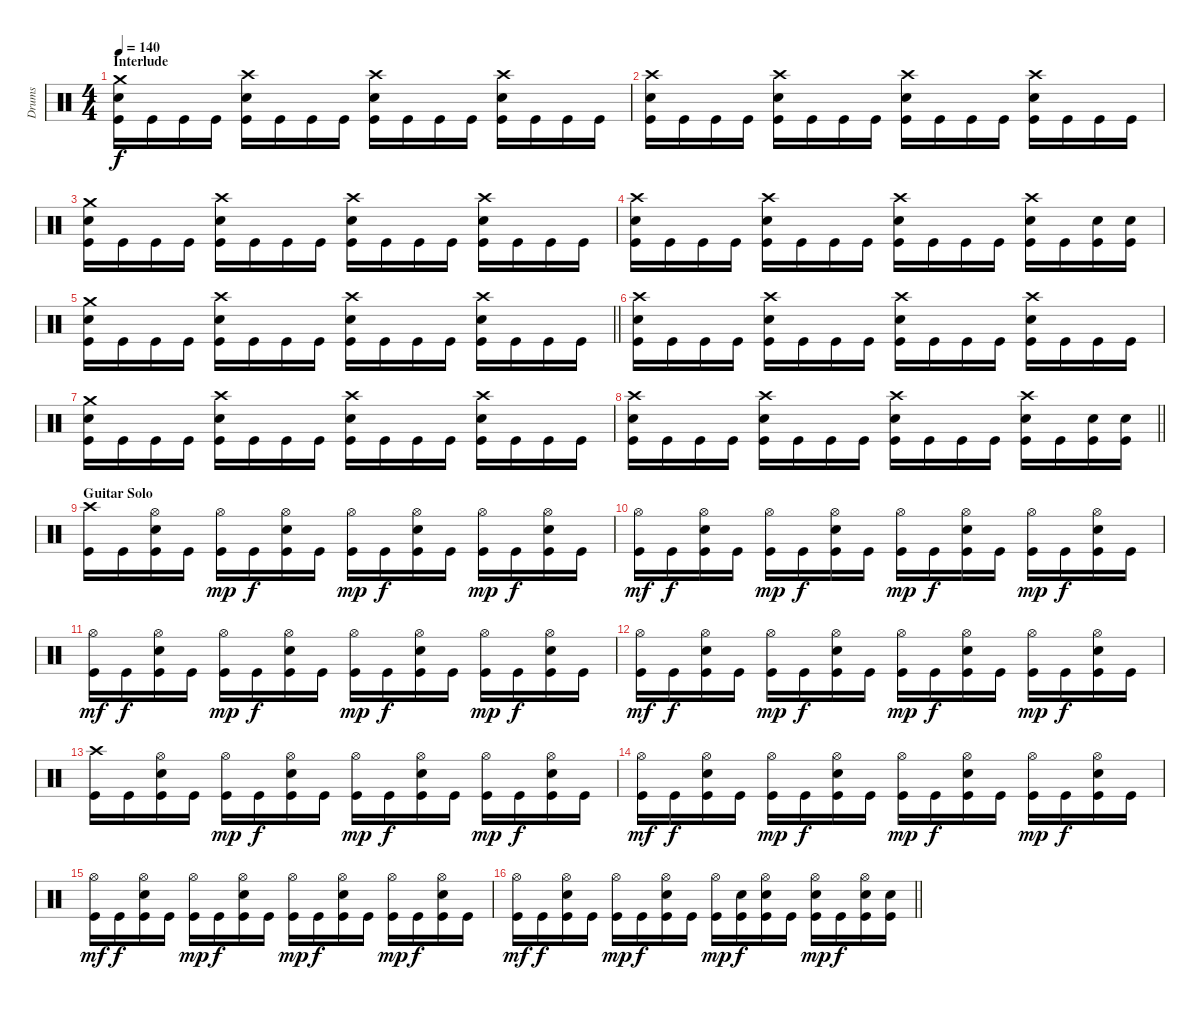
\track ("Drums" "Drums") {instrument percussion}
\staff {score}
\articulation defaults
\ts (4 4)
\section ("" "Interlude")
\tempo 140
\clef neutral
\ks c
("Crash medium (hit)" "Electric Snare (hit)" "Kick (hit)").16{dy f} "Kick (hit)".16 "Kick (hit)".16 "Kick (hit)".16 ("Crash high (hit)" "Electric Snare (hit)" "Kick (hit)").16 "Kick (hit)".16 "Kick (hit)".16 "Kick (hit)".16 ("Crash high (hit)" "Electric Snare (hit)" "Kick (hit)").16 "Kick (hit)".16 "Kick (hit)".16 "Kick (hit)".16 ("Crash high (hit)" "Electric Snare (hit)" "Kick (hit)").16 "Kick (hit)".16 "Kick (hit)".16 "Kick (hit)".16 |
("Crash high (hit)" "Electric Snare (hit)" "Kick (hit)").16 "Kick (hit)".16 "Kick (hit)".16 "Kick (hit)".16 ("Crash high (hit)" "Electric Snare (hit)" "Kick (hit)").16 "Kick (hit)".16 "Kick (hit)".16 "Kick (hit)".16 ("Crash high (hit)" "Electric Snare (hit)" "Kick (hit)").16 "Kick (hit)".16 "Kick (hit)".16 "Kick (hit)".16 ("Crash high (hit)" "Electric Snare (hit)" "Kick (hit)").16 "Kick (hit)".16 "Kick (hit)".16 "Kick (hit)".16 |
("Crash medium (hit)" "Electric Snare (hit)" "Kick (hit)").16 "Kick (hit)".16 "Kick (hit)".16 "Kick (hit)".16 ("Crash high (hit)" "Electric Snare (hit)" "Kick (hit)").16 "Kick (hit)".16 "Kick (hit)".16 "Kick (hit)".16 ("Crash high (hit)" "Electric Snare (hit)" "Kick (hit)").16 "Kick (hit)".16 "Kick (hit)".16 "Kick (hit)".16 ("Crash high (hit)" "Electric Snare (hit)" "Kick (hit)").16 "Kick (hit)".16 "Kick (hit)".16 "Kick (hit)".16 |
("Crash high (hit)" "Electric Snare (hit)" "Kick (hit)").16 "Kick (hit)".16 "Kick (hit)".16 "Kick (hit)".16 ("Crash high (hit)" "Electric Snare (hit)" "Kick (hit)").16 "Kick (hit)".16 "Kick (hit)".16 "Kick (hit)".16 ("Crash high (hit)" "Electric Snare (hit)" "Kick (hit)").16 "Kick (hit)".16 "Kick (hit)".16 "Kick (hit)".16 ("Crash high (hit)" "Electric Snare (hit)" "Kick (hit)").16 "Kick (hit)".16 ("Electric Snare (hit)" "Kick (hit)").16 ("Electric Snare (hit)" "Kick (hit)").16 |
\barLineRight lightlight
("Crash medium (hit)" "Electric Snare (hit)" "Kick (hit)").16 "Kick (hit)".16 "Kick (hit)".16 "Kick (hit)".16 ("Crash high (hit)" "Electric Snare (hit)" "Kick (hit)").16 "Kick (hit)".16 "Kick (hit)".16 "Kick (hit)".16 ("Crash high (hit)" "Electric Snare (hit)" "Kick (hit)").16 "Kick (hit)".16 "Kick (hit)".16 "Kick (hit)".16 ("Crash high (hit)" "Electric Snare (hit)" "Kick (hit)").16 "Kick (hit)".16 "Kick (hit)".16 "Kick (hit)".16 |
("Crash high (hit)" "Electric Snare (hit)" "Kick (hit)").16 "Kick (hit)".16 "Kick (hit)".16 "Kick (hit)".16 ("Crash high (hit)" "Electric Snare (hit)" "Kick (hit)").16 "Kick (hit)".16 "Kick (hit)".16 "Kick (hit)".16 ("Crash high (hit)" "Electric Snare (hit)" "Kick (hit)").16 "Kick (hit)".16 "Kick (hit)".16 "Kick (hit)".16 ("Crash high (hit)" "Electric Snare (hit)" "Kick (hit)").16 "Kick (hit)".16 "Kick (hit)".16 "Kick (hit)".16 |
("Crash medium (hit)" "Electric Snare (hit)" "Kick (hit)").16 "Kick (hit)".16 "Kick (hit)".16 "Kick (hit)".16 ("Crash high (hit)" "Electric Snare (hit)" "Kick (hit)").16 "Kick (hit)".16 "Kick (hit)".16 "Kick (hit)".16 ("Crash high (hit)" "Electric Snare (hit)" "Kick (hit)").16 "Kick (hit)".16 "Kick (hit)".16 "Kick (hit)".16 ("Crash high (hit)" "Electric Snare (hit)" "Kick (hit)").16 "Kick (hit)".16 "Kick (hit)".16 "Kick (hit)".16 |
\barLineRight lightlight
("Crash high (hit)" "Electric Snare (hit)" "Kick (hit)").16 "Kick (hit)".16 "Kick (hit)".16 "Kick (hit)".16 ("Crash high (hit)" "Electric Snare (hit)" "Kick (hit)").16 "Kick (hit)".16 "Kick (hit)".16 "Kick (hit)".16 ("Crash high (hit)" "Electric Snare (hit)" "Kick (hit)").16 "Kick (hit)".16 "Kick (hit)".16 "Kick (hit)".16 ("Crash high (hit)" "Electric Snare (hit)" "Kick (hit)").16 "Kick (hit)".16 ("Electric Snare (hit)" "Kick (hit)").16 ("Electric Snare (hit)" "Kick (hit)").16 |
\section ("" "Guitar Solo")
("Crash high (hit)" "Kick (hit)").16 "Kick (hit)".16 ("Hi-Hat (open)" "Electric Snare (hit)" "Kick (hit)").16 "Kick (hit)".16 ("Hi-Hat (open)" "Kick (hit)").16{dy mp} "Kick (hit)".16{dy f} ("Hi-Hat (open)" "Electric Snare (hit)" "Kick (hit)").16 "Kick (hit)".16 ("Hi-Hat (open)" "Kick (hit)").16{dy mp} "Kick (hit)".16{dy f} ("Hi-Hat (open)" "Electric Snare (hit)" "Kick (hit)").16 "Kick (hit)".16 ("Hi-Hat (open)" "Kick (hit)").16{dy mp} "Kick (hit)".16{dy f} ("Hi-Hat (open)" "Electric Snare (hit)" "Kick (hit)").16 "Kick (hit)".16 |
("Hi-Hat (open)" "Kick (hit)").16{dy mf} "Kick (hit)".16{dy f} ("Hi-Hat (open)" "Electric Snare (hit)" "Kick (hit)").16 "Kick (hit)".16 ("Hi-Hat (open)" "Kick (hit)").16{dy mp} "Kick (hit)".16{dy f} ("Hi-Hat (open)" "Electric Snare (hit)" "Kick (hit)").16 "Kick (hit)".16 ("Hi-Hat (open)" "Kick (hit)").16{dy mp} "Kick (hit)".16{dy f} ("Hi-Hat (open)" "Electric Snare (hit)" "Kick (hit)").16 "Kick (hit)".16 ("Hi-Hat (open)" "Kick (hit)").16{dy mp} "Kick (hit)".16{dy f} ("Hi-Hat (open)" "Electric Snare (hit)" "Kick (hit)").16 "Kick (hit)".16 |
("Hi-Hat (open)" "Kick (hit)").16{dy mf} "Kick (hit)".16{dy f} ("Hi-Hat (open)" "Electric Snare (hit)" "Kick (hit)").16 "Kick (hit)".16 ("Hi-Hat (open)" "Kick (hit)").16{dy mp} "Kick (hit)".16{dy f} ("Hi-Hat (open)" "Electric Snare (hit)" "Kick (hit)").16 "Kick (hit)".16 ("Hi-Hat (open)" "Kick (hit)").16{dy mp} "Kick (hit)".16{dy f} ("Hi-Hat (open)" "Electric Snare (hit)" "Kick (hit)").16 "Kick (hit)".16 ("Hi-Hat (open)" "Kick (hit)").16{dy mp} "Kick (hit)".16{dy f} ("Hi-Hat (open)" "Electric Snare (hit)" "Kick (hit)").16 "Kick (hit)".16 |
("Hi-Hat (open)" "Kick (hit)").16{dy mf} "Kick (hit)".16{dy f} ("Hi-Hat (open)" "Electric Snare (hit)" "Kick (hit)").16 "Kick (hit)".16 ("Hi-Hat (open)" "Kick (hit)").16{dy mp} "Kick (hit)".16{dy f} ("Hi-Hat (open)" "Electric Snare (hit)" "Kick (hit)").16 "Kick (hit)".16 ("Hi-Hat (open)" "Kick (hit)").16{dy mp} "Kick (hit)".16{dy f} ("Hi-Hat (open)" "Electric Snare (hit)" "Kick (hit)").16 "Kick (hit)".16 ("Hi-Hat (open)" "Kick (hit)").16{dy mp} "Kick (hit)".16{dy f} ("Hi-Hat (open)" "Electric Snare (hit)" "Kick (hit)").16 "Kick (hit)".16 |
("Crash high (hit)" "Kick (hit)").16 "Kick (hit)".16 ("Hi-Hat (open)" "Electric Snare (hit)" "Kick (hit)").16 "Kick (hit)".16 ("Hi-Hat (open)" "Kick (hit)").16{dy mp} "Kick (hit)".16{dy f} ("Hi-Hat (open)" "Electric Snare (hit)" "Kick (hit)").16 "Kick (hit)".16 ("Hi-Hat (open)" "Kick (hit)").16{dy mp} "Kick (hit)".16{dy f} ("Hi-Hat (open)" "Electric Snare (hit)" "Kick (hit)").16 "Kick (hit)".16 ("Hi-Hat (open)" "Kick (hit)").16{dy mp} "Kick (hit)".16{dy f} ("Hi-Hat (open)" "Electric Snare (hit)" "Kick (hit)").16 "Kick (hit)".16 |
("Hi-Hat (open)" "Kick (hit)").16{dy mf} "Kick (hit)".16{dy f} ("Hi-Hat (open)" "Electric Snare (hit)" "Kick (hit)").16 "Kick (hit)".16 ("Hi-Hat (open)" "Kick (hit)").16{dy mp} "Kick (hit)".16{dy f} ("Hi-Hat (open)" "Electric Snare (hit)" "Kick (hit)").16 "Kick (hit)".16 ("Hi-Hat (open)" "Kick (hit)").16{dy mp} "Kick (hit)".16{dy f} ("Hi-Hat (open)" "Electric Snare (hit)" "Kick (hit)").16 "Kick (hit)".16 ("Hi-Hat (open)" "Kick (hit)").16{dy mp} "Kick (hit)".16{dy f} ("Hi-Hat (open)" "Electric Snare (hit)" "Kick (hit)").16 "Kick (hit)".16 |
("Hi-Hat (open)" "Kick (hit)").16{dy mf} "Kick (hit)".16{dy f} ("Hi-Hat (open)" "Electric Snare (hit)" "Kick (hit)").16 "Kick (hit)".16 ("Hi-Hat (open)" "Kick (hit)").16{dy mp} "Kick (hit)".16{dy f} ("Hi-Hat (open)" "Electric Snare (hit)" "Kick (hit)").16 "Kick (hit)".16 ("Hi-Hat (open)" "Kick (hit)").16{dy mp} "Kick (hit)".16{dy f} ("Hi-Hat (open)" "Electric Snare (hit)" "Kick (hit)").16 "Kick (hit)".16 ("Hi-Hat (open)" "Kick (hit)").16{dy mp} "Kick (hit)".16{dy f} ("Hi-Hat (open)" "Electric Snare (hit)" "Kick (hit)").16 "Kick (hit)".16 |
\barLineRight lightlight
("Hi-Hat (open)" "Kick (hit)").16{dy mf} "Kick (hit)".16{dy f} ("Hi-Hat (open)" "Electric Snare (hit)" "Kick (hit)").16 "Kick (hit)".16 ("Hi-Hat (open)" "Kick (hit)").16{dy mp} "Kick (hit)".16{dy f} ("Hi-Hat (open)" "Electric Snare (hit)" "Kick (hit)").16 "Kick (hit)".16 ("Hi-Hat (open)" "Kick (hit)").16{dy mp} ("Electric Snare (hit)" "Kick (hit)").16{dy f} ("Hi-Hat (open)" "Electric Snare (hit)" "Kick (hit)").16 "Kick (hit)".16 ("Hi-Hat (open)" "Electric Snare (hit)" "Kick (hit)").16{dy mp} "Kick (hit)".16{dy f} ("Hi-Hat (open)" "Electric Snare (hit)" "Kick (hit)").16 ("Electric Snare (hit)" "Kick (hit)").16
